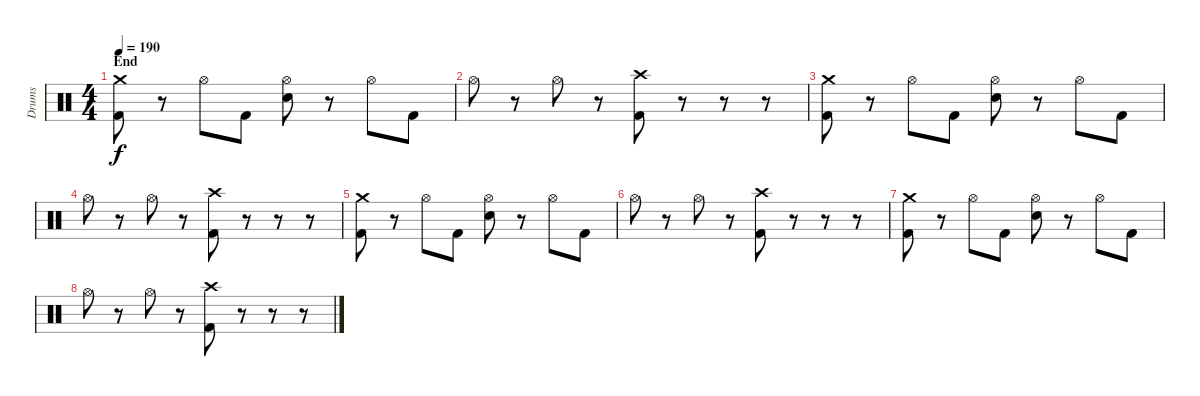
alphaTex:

\track ("Drums" "Drums") {instrument percussion}
\staff {score}
\articulation defaults
\ts (4 4)
\section ("" "End")
\tempo 190
\clef neutral
\ks c
("Crash medium (hit)" "Kick (hit) 2").8{dy f} r.8 "Hi-Hat (open)".8 "Kick (hit) 2".8 ("Hi-Hat (open)" "Electric Snare (hit)").8 r.8 "Hi-Hat (open)".8 "Kick (hit) 2".8 |
"Hi-Hat (open)".8 r.8 "Hi-Hat (open)".8 r.8 ("Crash high (hit)" "Kick (hit) 2").8 r.8 r.8 r.8 |
("Crash medium (hit)" "Kick (hit) 2").8 r.8 "Hi-Hat (open)".8 "Kick (hit) 2".8 ("Hi-Hat (open)" "Electric Snare (hit)").8 r.8 "Hi-Hat (open)".8 "Kick (hit) 2".8 |
"Hi-Hat (open)".8 r.8 "Hi-Hat (open)".8 r.8 ("Crash high (hit)" "Kick (hit) 2").8 r.8 r.8 r.8 |
("Crash medium (hit)" "Kick (hit) 2").8 r.8 "Hi-Hat (open)".8 "Kick (hit) 2".8 ("Hi-Hat (open)" "Electric Snare (hit)").8 r.8 "Hi-Hat (open)".8 "Kick (hit) 2".8 |
"Hi-Hat (open)".8 r.8 "Hi-Hat (open)".8 r.8 ("Crash high (hit)" "Kick (hit) 2").8 r.8 r.8 r.8 |
("Crash medium (hit)" "Kick (hit) 2").8 r.8 "Hi-Hat (open)".8 "Kick (hit) 2".8 ("Hi-Hat (open)" "Electric Snare (hit)").8 r.8 "Hi-Hat (open)".8 "Kick (hit) 2".8 |
"Hi-Hat (open)".8 r.8 "Hi-Hat (open)".8 r.8 ("Crash high (hit)" "Kick (hit) 2").8 r.8 r.8 r.8
